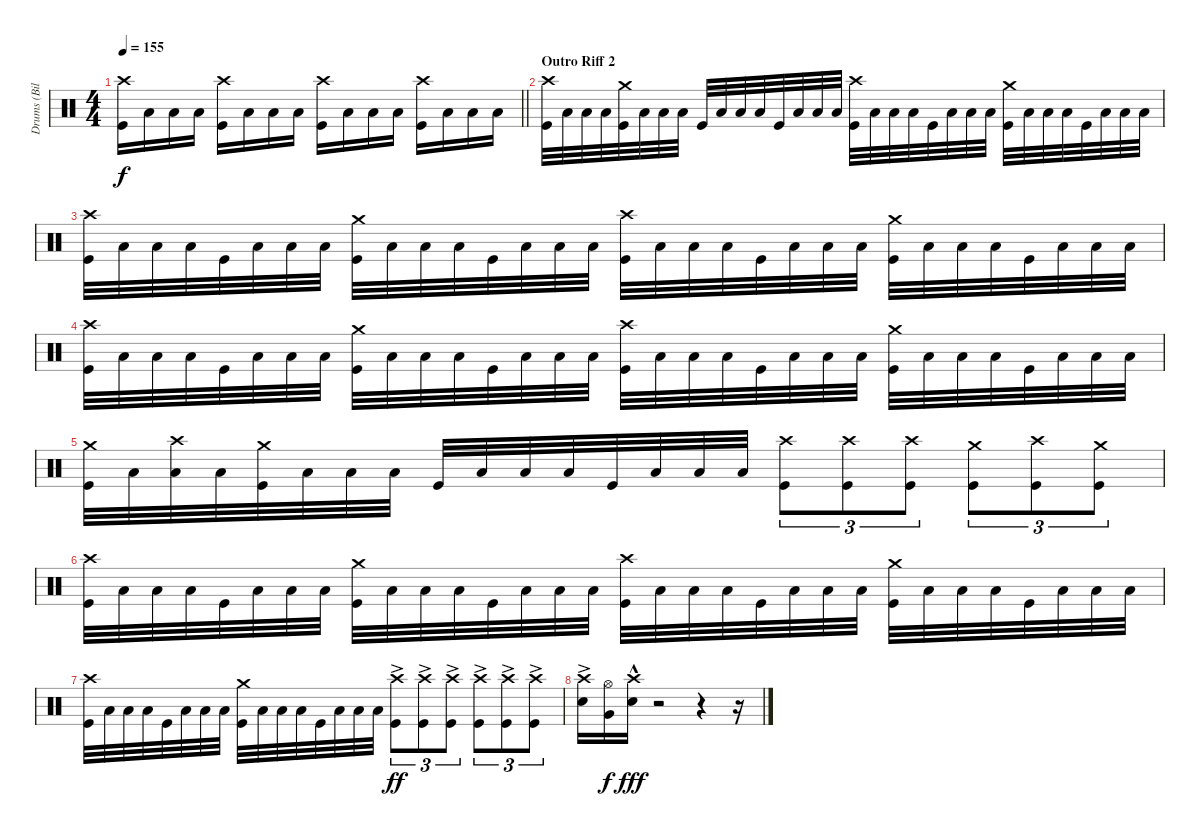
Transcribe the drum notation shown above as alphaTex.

\track ("Drums (Bill Ward)" "Drums (Bil") {instrument percussion}
\staff {score}
\articulation defaults
\ts (4 4)
\tempo 155
\clef neutral
\barLineRight lightlight
\ks c
("Crash high (hit)" "Kick (hit)").16{dy f} "Low Tom (hit)".16 "Low Tom (hit)".16 "Low Tom (hit)".16 ("Crash high (hit)" "Kick (hit)").16 "Low Tom (hit)".16 "Low Tom (hit)".16 "Low Tom (hit)".16 ("Crash high (hit)" "Kick (hit)").16 "Low Tom (hit)".16 "Low Tom (hit)".16 "Low Tom (hit)".16 ("Crash high (hit)" "Kick (hit)").16 "Low Tom (hit)".16 "Low Tom (hit)".16 "Low Tom (hit)".16 |
\section ("" "Outro Riff 2")
("Crash high (hit)" "Kick (hit)").32 "Low Tom (hit)".32 "Low Tom (hit)".32 "Low Tom (hit)".32 ("Crash medium (hit)" "Kick (hit)").32 "Low Tom (hit)".32 "Low Tom (hit)".32 "Low Tom (hit)".32 "Kick (hit)".32 "Low Tom (hit)".32 "Low Tom (hit)".32 "Low Tom (hit)".32 "Kick (hit)".32 "Low Tom (hit)".32 "Low Tom (hit)".32 "Low Tom (hit)".32 ("Crash high (hit)" "Kick (hit)").32 "Low Tom (hit)".32 "Low Tom (hit)".32 "Low Tom (hit)".32 "Kick (hit)".32 "Low Tom (hit)".32 "Low Tom (hit)".32 "Low Tom (hit)".32 ("Crash medium (hit)" "Kick (hit)").32 "Low Tom (hit)".32 "Low Tom (hit)".32 "Low Tom (hit)".32 "Kick (hit)".32 "Low Tom (hit)".32 "Low Tom (hit)".32 "Low Tom (hit)".32 |
("Crash high (hit)" "Kick (hit)").32 "Low Tom (hit)".32 "Low Tom (hit)".32 "Low Tom (hit)".32 "Kick (hit)".32 "Low Tom (hit)".32 "Low Tom (hit)".32 "Low Tom (hit)".32 ("Crash medium (hit)" "Kick (hit)").32 "Low Tom (hit)".32 "Low Tom (hit)".32 "Low Tom (hit)".32 "Kick (hit)".32 "Low Tom (hit)".32 "Low Tom (hit)".32 "Low Tom (hit)".32 ("Crash high (hit)" "Kick (hit)").32 "Low Tom (hit)".32 "Low Tom (hit)".32 "Low Tom (hit)".32 "Kick (hit)".32 "Low Tom (hit)".32 "Low Tom (hit)".32 "Low Tom (hit)".32 ("Crash medium (hit)" "Kick (hit)").32 "Low Tom (hit)".32 "Low Tom (hit)".32 "Low Tom (hit)".32 "Kick (hit)".32 "Low Tom (hit)".32 "Low Tom (hit)".32 "Low Tom (hit)".32 |
("Crash high (hit)" "Kick (hit)").32 "Low Tom (hit)".32 "Low Tom (hit)".32 "Low Tom (hit)".32 "Kick (hit)".32 "Low Tom (hit)".32 "Low Tom (hit)".32 "Low Tom (hit)".32 ("Crash medium (hit)" "Kick (hit)").32 "Low Tom (hit)".32 "Low Tom (hit)".32 "Low Tom (hit)".32 "Kick (hit)".32 "Low Tom (hit)".32 "Low Tom (hit)".32 "Low Tom (hit)".32 ("Crash high (hit)" "Kick (hit)").32 "Low Tom (hit)".32 "Low Tom (hit)".32 "Low Tom (hit)".32 "Kick (hit)".32 "Low Tom (hit)".32 "Low Tom (hit)".32 "Low Tom (hit)".32 ("Crash medium (hit)" "Kick (hit)").32 "Low Tom (hit)".32 "Low Tom (hit)".32 "Low Tom (hit)".32 "Kick (hit)".32 "Low Tom (hit)".32 "Low Tom (hit)".32 "Low Tom (hit)".32 |
("Crash medium (hit)" "Kick (hit)").32 "Low Tom (hit)".32 ("Crash high (hit)" "Low Tom (hit)").32 "Low Tom (hit)".32 ("Crash medium (hit)" "Kick (hit)").32 "Low Tom (hit)".32 "Low Tom (hit)".32 "Low Tom (hit)".32 "Kick (hit)".32 "Low Tom (hit)".32 "Low Tom (hit)".32 "Low Tom (hit)".32 "Kick (hit)".32 "Low Tom (hit)".32 "Low Tom (hit)".32 "Low Tom (hit)".32 ("Crash high (hit)" "Kick (hit)").8{tu (3 2)} ("Crash high (hit)" "Kick (hit)").8{tu (3 2)} ("Crash high (hit)" "Kick (hit)").8{tu (3 2)} ("Crash medium (hit)" "Kick (hit)").8{tu (3 2)} ("Crash high (hit)" "Kick (hit)").8{tu (3 2)} ("Crash medium (hit)" "Kick (hit)").8{tu (3 2)} |
("Crash high (hit)" "Kick (hit)").32 "Low Tom (hit)".32 "Low Tom (hit)".32 "Low Tom (hit)".32 "Kick (hit)".32 "Low Tom (hit)".32 "Low Tom (hit)".32 "Low Tom (hit)".32 ("Crash medium (hit)" "Kick (hit)").32 "Low Tom (hit)".32 "Low Tom (hit)".32 "Low Tom (hit)".32 "Kick (hit)".32 "Low Tom (hit)".32 "Low Tom (hit)".32 "Low Tom (hit)".32 ("Crash high (hit)" "Kick (hit)").32 "Low Tom (hit)".32 "Low Tom (hit)".32 "Low Tom (hit)".32 "Kick (hit)".32 "Low Tom (hit)".32 "Low Tom (hit)".32 "Low Tom (hit)".32 ("Crash medium (hit)" "Kick (hit)").32 "Low Tom (hit)".32 "Low Tom (hit)".32 "Low Tom (hit)".32 "Kick (hit)".32 "Low Tom (hit)".32 "Low Tom (hit)".32 "Low Tom (hit)".32 |
("Crash high (hit)" "Kick (hit)").32 "Low Tom (hit)".32 "Low Tom (hit)".32 "Low Tom (hit)".32 "Kick (hit)".32 "Low Tom (hit)".32 "Low Tom (hit)".32 "Low Tom (hit)".32 ("Crash medium (hit)" "Kick (hit)").32 "Low Tom (hit)".32 "Low Tom (hit)".32 "Low Tom (hit)".32 "Kick (hit)".32 "Low Tom (hit)".32 "Low Tom (hit)".32 "Low Tom (hit)".32 ("Crash high (hit)"{ac} "Kick (hit)"{ac}).8{tu (3 2) dy ff} ("Crash high (hit)"{ac} "Kick (hit)"{ac}).8{tu (3 2)} ("Crash high (hit)"{ac} "Kick (hit)"{ac}).8{tu (3 2)} ("Crash high (hit)"{ac} "Kick (hit)"{ac}).8{tu (3 2)} ("Crash high (hit)"{ac} "Kick (hit)"{ac}).8{tu (3 2)} ("Crash high (hit)"{ac} "Kick (hit)"{ac}).8{tu (3 2)} |
("Crash high (hit)" "Electric Snare (hit)"{ac}).16 ("Hi-Hat (open)" "Very Low Tom (hit)").16{dy f} ("Crash high (hit)" "Electric Snare (hit)"{hac}).16{dy fff} r.2 r.4 r.16
